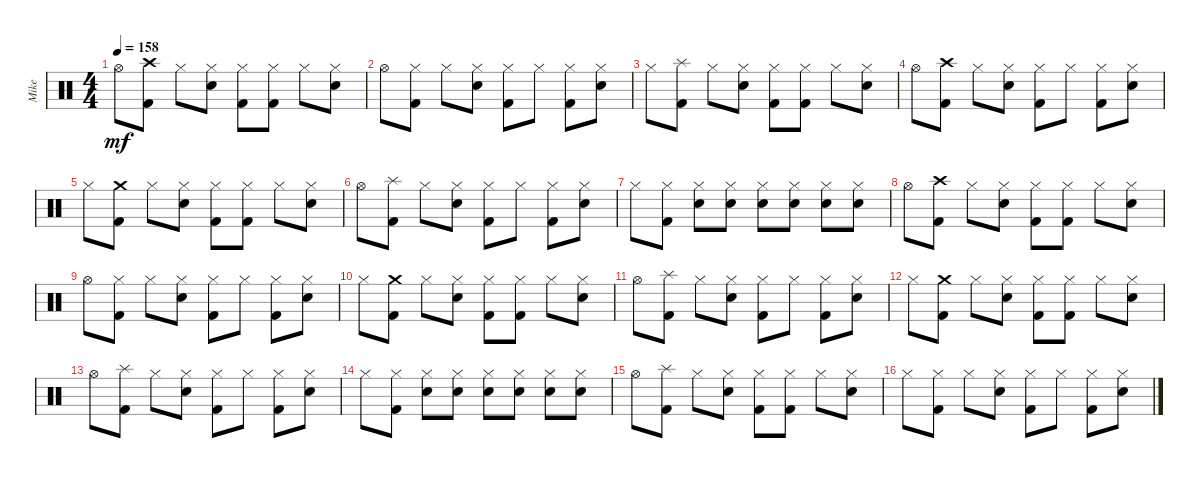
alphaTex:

\track ("Mike" "Mike") {instrument percussion}
\staff {score}
\articulation defaults
\ts (4 4)
\tempo 158
\clef neutral
\ks c "Hi-Hat (open)".8{dy mf}
("Crash high (hit)" "Kick (hit) 2").8 "Hi-Hat (closed)".8 ("Hi-Hat (closed)" "Electric Snare (hit)").8 ("Hi-Hat (closed)" "Kick (hit) 2").8 ("Hi-Hat (closed)" "Kick (hit) 2").8 "Hi-Hat (closed)".8 ("Hi-Hat (closed)" "Electric Snare (hit)").8 |
"Hi-Hat (open)".8 ("Hi-Hat (closed)" "Kick (hit) 2").8 "Hi-Hat (closed)".8 ("Hi-Hat (closed)" "Electric Snare (hit)").8 ("Hi-Hat (closed)" "Kick (hit) 2").8 "Hi-Hat (closed)".8 ("Hi-Hat (closed)" "Kick (hit) 2").8 ("Hi-Hat (closed)" "Electric Snare (hit)").8 |
"Hi-Hat (closed)".8 ("Splash (hit)" "Kick (hit) 2").8 "Hi-Hat (closed)".8 ("Hi-Hat (closed)" "Electric Snare (hit)").8 ("Hi-Hat (closed)" "Kick (hit) 2").8 ("Hi-Hat (closed)" "Kick (hit) 2").8 "Hi-Hat (closed)".8 ("Hi-Hat (closed)" "Electric Snare (hit)").8 |
"Hi-Hat (open)".8 ("Crash high (hit)" "Kick (hit) 2").8 "Hi-Hat (closed)".8 ("Hi-Hat (closed)" "Electric Snare (hit)").8 ("Hi-Hat (closed)" "Kick (hit) 2").8 "Hi-Hat (closed)".8 ("Hi-Hat (closed)" "Kick (hit) 2").8 ("Hi-Hat (closed)" "Electric Snare (hit)").8 |
"Hi-Hat (closed)".8 ("Crash medium (hit)" "Kick (hit) 2").8 "Hi-Hat (closed)".8 ("Hi-Hat (closed)" "Electric Snare (hit)").8 ("Hi-Hat (closed)" "Kick (hit) 2").8 ("Hi-Hat (closed)" "Kick (hit) 2").8 "Hi-Hat (closed)".8 ("Hi-Hat (closed)" "Electric Snare (hit)").8 |
"Hi-Hat (open)".8 ("Splash (hit)" "Kick (hit) 2").8 "Hi-Hat (closed)".8 ("Hi-Hat (closed)" "Electric Snare (hit)").8 ("Hi-Hat (closed)" "Kick (hit) 2").8 "Hi-Hat (closed)".8 ("Hi-Hat (closed)" "Kick (hit) 2").8 ("Hi-Hat (closed)" "Electric Snare (hit)").8 |
"Hi-Hat (closed)".8 ("Hi-Hat (closed)" "Kick (hit) 2").8 ("Hi-Hat (closed)" "Electric Snare (hit)").8 ("Hi-Hat (closed)" "Electric Snare (hit)").8 ("Hi-Hat (closed)" "Electric Snare (hit)").8 ("Hi-Hat (closed)" "Electric Snare (hit)").8 ("Hi-Hat (closed)" "Electric Snare (hit)").8 ("Hi-Hat (closed)" "Electric Snare (hit)").8 |
"Hi-Hat (open)".8 ("Crash high (hit)" "Kick (hit) 2").8 "Hi-Hat (closed)".8 ("Hi-Hat (closed)" "Electric Snare (hit)").8 ("Hi-Hat (closed)" "Kick (hit) 2").8 ("Hi-Hat (closed)" "Kick (hit) 2").8 "Hi-Hat (closed)".8 ("Hi-Hat (closed)" "Electric Snare (hit)").8 |
"Hi-Hat (open)".8 ("Hi-Hat (closed)" "Kick (hit) 2").8 "Hi-Hat (closed)".8 ("Hi-Hat (closed)" "Electric Snare (hit)").8 ("Hi-Hat (closed)" "Kick (hit) 2").8 "Hi-Hat (closed)".8 ("Hi-Hat (closed)" "Kick (hit) 2").8 ("Hi-Hat (closed)" "Electric Snare (hit)").8 |
"Hi-Hat (closed)".8 ("Crash medium (hit)" "Kick (hit) 2").8 "Hi-Hat (closed)".8 ("Hi-Hat (closed)" "Electric Snare (hit)").8 ("Hi-Hat (closed)" "Kick (hit) 2").8 ("Hi-Hat (closed)" "Kick (hit) 2").8 "Hi-Hat (closed)".8 ("Hi-Hat (closed)" "Electric Snare (hit)").8 |
"Hi-Hat (open)".8 ("Splash (hit)" "Kick (hit) 2").8 "Hi-Hat (closed)".8 ("Hi-Hat (closed)" "Electric Snare (hit)").8 ("Hi-Hat (closed)" "Kick (hit) 2").8 "Hi-Hat (closed)".8 ("Hi-Hat (closed)" "Kick (hit) 2").8 ("Hi-Hat (closed)" "Electric Snare (hit)").8 |
"Hi-Hat (closed)".8 ("Crash medium (hit)" "Kick (hit) 2").8 "Hi-Hat (closed)".8 ("Hi-Hat (closed)" "Electric Snare (hit)").8 ("Hi-Hat (closed)" "Kick (hit) 2").8 ("Hi-Hat (closed)" "Kick (hit) 2").8 "Hi-Hat (closed)".8 ("Hi-Hat (closed)" "Electric Snare (hit)").8 |
"Hi-Hat (open)".8 ("Splash (hit)" "Kick (hit) 2").8 "Hi-Hat (closed)".8 ("Hi-Hat (closed)" "Electric Snare (hit)").8 ("Hi-Hat (closed)" "Kick (hit) 2").8 "Hi-Hat (closed)".8 ("Hi-Hat (closed)" "Kick (hit) 2").8 ("Hi-Hat (closed)" "Electric Snare (hit)").8 |
"Hi-Hat (closed)".8 ("Hi-Hat (closed)" "Kick (hit) 2").8 ("Hi-Hat (closed)" "Electric Snare (hit)").8 ("Hi-Hat (closed)" "Electric Snare (hit)").8 ("Hi-Hat (closed)" "Electric Snare (hit)").8 ("Hi-Hat (closed)" "Electric Snare (hit)").8 ("Hi-Hat (closed)" "Electric Snare (hit)").8 ("Hi-Hat (closed)" "Electric Snare (hit)").8 |
"Hi-Hat (open)".8 ("Splash (hit)" "Kick (hit) 2").8 "Hi-Hat (closed)".8 ("Hi-Hat (closed)" "Electric Snare (hit)").8 ("Hi-Hat (closed)" "Kick (hit) 2").8 ("Hi-Hat (closed)" "Kick (hit) 2").8 "Hi-Hat (closed)".8 ("Hi-Hat (closed)" "Electric Snare (hit)").8 |
"Hi-Hat (closed)".8 ("Hi-Hat (closed)" "Kick (hit) 2").8 "Hi-Hat (closed)".8 ("Hi-Hat (closed)" "Electric Snare (hit)").8 ("Hi-Hat (closed)" "Kick (hit) 2").8 "Hi-Hat (closed)".8 ("Hi-Hat (closed)" "Kick (hit) 2").8 ("Hi-Hat (closed)" "Electric Snare (hit)").8
